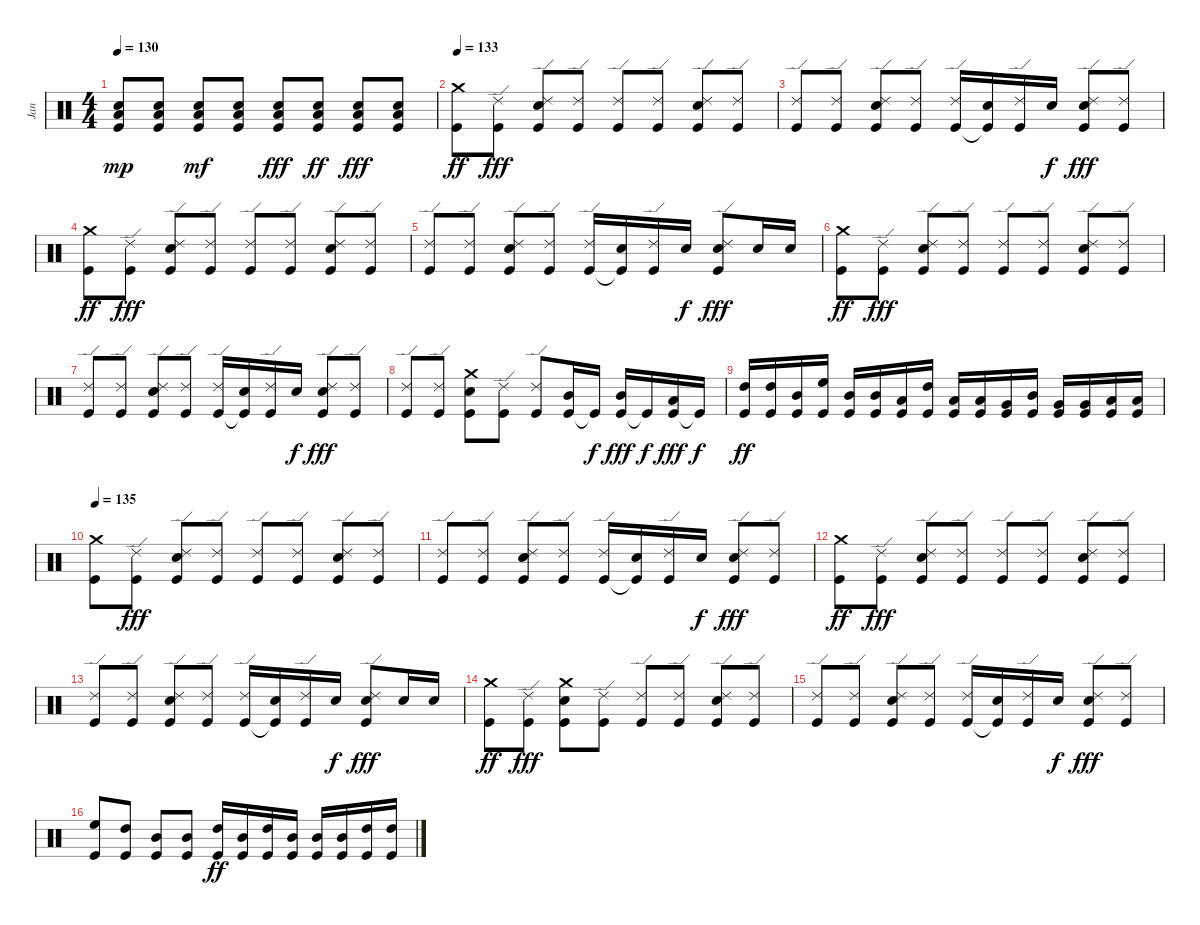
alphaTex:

\track ("Jan" "Jan") {instrument percussion}
\staff {score}
\articulation defaults
\ts (4 4)
\tempo 130
\clef neutral
\ks c
("Kick (hit)" "Snare (hit) 2" "Low Floor Tom (hit)").8{dy mp} ("Kick (hit)" "Snare (hit) 2" "Low Floor Tom (hit)").8 ("Kick (hit)" "Snare (hit) 2" "Low Floor Tom (hit)").8{dy mf} ("Kick (hit)" "Snare (hit) 2" "Low Floor Tom (hit)").8 ("Kick (hit)" "Snare (hit) 2" "Low Floor Tom (hit)").8{dy fff} ("Kick (hit)" "Snare (hit) 2" "Low Floor Tom (hit)").8{dy ff} ("Kick (hit)" "Snare (hit) 2" "Low Floor Tom (hit)").8{dy fff} ("Kick (hit)" "Snare (hit) 2" "Low Floor Tom (hit)").8 |
\tempo 133
("Kick (hit)" "Crash medium (hit)").8{dy ff} ("Kick (hit)" "Ride (edge) 2").8{dy fff} ("Kick (hit)" "Snare (hit) 2" "Ride (edge) 2").8 ("Kick (hit)" "Ride (edge) 2").8 ("Kick (hit)" "Ride (edge) 2").8 ("Kick (hit)" "Ride (edge) 2").8 ("Kick (hit)" "Snare (hit) 2" "Ride (edge) 2").8 ("Kick (hit)" "Ride (edge) 2").8 |
("Kick (hit)" "Ride (edge) 2").8 ("Kick (hit)" "Ride (edge) 2").8 ("Kick (hit)" "Snare (hit) 2" "Ride (edge) 2").8 ("Kick (hit)" "Ride (edge) 2").8 ("Kick (hit)" "Ride (edge) 2").16 ("Kick (hit)"{t} "Snare (hit) 2").16 ("Kick (hit)" "Ride (edge) 2").16 "Snare (hit) 2".16{dy f} ("Kick (hit)" "Snare (hit) 2" "Ride (edge) 2").8{dy fff} ("Kick (hit)" "Ride (edge) 2").8 |
("Kick (hit)" "Crash medium (hit)").8{dy ff} ("Kick (hit)" "Ride (edge) 2").8{dy fff} ("Kick (hit)" "Snare (hit) 2" "Ride (edge) 2").8 ("Kick (hit)" "Ride (edge) 2").8 ("Kick (hit)" "Ride (edge) 2").8 ("Kick (hit)" "Ride (edge) 2").8 ("Kick (hit)" "Snare (hit) 2" "Ride (edge) 2").8 ("Kick (hit)" "Ride (edge) 2").8 |
("Kick (hit)" "Ride (edge) 2").8 ("Kick (hit)" "Ride (edge) 2").8 ("Kick (hit)" "Snare (hit) 2" "Ride (edge) 2").8 ("Kick (hit)" "Ride (edge) 2").8 ("Kick (hit)" "Ride (edge) 2").16 ("Kick (hit)"{t} "Snare (hit) 2").16 ("Kick (hit)" "Ride (edge) 2").16 "Snare (hit) 2".16{dy f} ("Kick (hit)" "Snare (hit) 2" "Ride (edge) 2").8{dy fff} "Snare (hit) 2".16 "Snare (hit) 2".16 |
("Kick (hit)" "Crash medium (hit)").8{dy ff} ("Kick (hit)" "Ride (edge) 2").8{dy fff} ("Kick (hit)" "Snare (hit) 2" "Ride (edge) 2").8 ("Kick (hit)" "Ride (edge) 2").8 ("Kick (hit)" "Ride (edge) 2").8 ("Kick (hit)" "Ride (edge) 2").8 ("Kick (hit)" "Snare (hit) 2" "Ride (edge) 2").8 ("Kick (hit)" "Ride (edge) 2").8 |
("Kick (hit)" "Ride (edge) 2").8 ("Kick (hit)" "Ride (edge) 2").8 ("Kick (hit)" "Snare (hit) 2" "Ride (edge) 2").8 ("Kick (hit)" "Ride (edge) 2").8 ("Kick (hit)" "Ride (edge) 2").16 ("Kick (hit)"{t} "Snare (hit) 2").16 ("Kick (hit)" "Ride (edge) 2").16 "Snare (hit) 2".16{dy f} ("Kick (hit)" "Snare (hit) 2" "Ride (edge) 2").8{dy fff} ("Kick (hit)" "Ride (edge) 2").8 |
("Kick (hit)" "Ride (edge) 2").8 ("Kick (hit)" "Ride (edge) 2").8 ("Kick (hit)" "Snare (hit) 2" "Crash medium (hit)").8 ("Kick (hit)" "Ride (edge) 2").8 ("Kick (hit)" "Ride (edge) 2").8 ("Kick (hit)" "Mid Tom (hit)").16 "Kick (hit)"{t}.16{dy f} ("Kick (hit)" "Mid Tom (hit)").16{dy fff} "Kick (hit)"{t}.16{dy f} ("Kick (hit)" "Low Tom (hit)").16{dy fff} "Kick (hit)"{t}.16{dy f} |
("Kick (hit)" "High Tom (hit)").16{dy ff} ("Kick (hit)" "High Tom (hit)").16 ("Kick (hit)" "Mid Tom (hit)").16 ("Kick (hit)" "High Floor Tom (hit)").16 ("Kick (hit)" "Mid Tom (hit)").16 ("Kick (hit)" "Mid Tom (hit)").16 ("Kick (hit)" "Low Tom (hit)").16 ("Kick (hit)" "High Tom (hit)").16 ("Kick (hit)" "Low Tom (hit)").16 ("Kick (hit)" "Low Tom (hit)").16 ("Kick (hit)" "Very Low Tom (hit)").16 ("Kick (hit)" "Mid Tom (hit)").16 ("Kick (hit)" "Very Low Tom (hit)").16 ("Kick (hit)" "Very Low Tom (hit)").16 ("Kick (hit)" "Low Floor Tom (hit)").16 ("Kick (hit)" "Low Tom (hit)").16 |
\tempo 135
("Kick (hit)" "Crash medium (hit)").8 ("Kick (hit)" "Ride (edge) 2").8{dy fff} ("Kick (hit)" "Snare (hit) 2" "Ride (edge) 2").8 ("Kick (hit)" "Ride (edge) 2").8 ("Kick (hit)" "Ride (edge) 2").8 ("Kick (hit)" "Ride (edge) 2").8 ("Kick (hit)" "Snare (hit) 2" "Ride (edge) 2").8 ("Kick (hit)" "Ride (edge) 2").8 |
("Kick (hit)" "Ride (edge) 2").8 ("Kick (hit)" "Ride (edge) 2").8 ("Kick (hit)" "Snare (hit) 2" "Ride (edge) 2").8 ("Kick (hit)" "Ride (edge) 2").8 ("Kick (hit)" "Ride (edge) 2").16 ("Kick (hit)"{t} "Snare (hit) 2").16 ("Kick (hit)" "Ride (edge) 2").16 "Snare (hit) 2".16{dy f} ("Kick (hit)" "Snare (hit) 2" "Ride (edge) 2").8{dy fff} ("Kick (hit)" "Ride (edge) 2").8 |
("Kick (hit)" "Crash medium (hit)").8{dy ff} ("Kick (hit)" "Ride (edge) 2").8{dy fff} ("Kick (hit)" "Snare (hit) 2" "Ride (edge) 2").8 ("Kick (hit)" "Ride (edge) 2").8 ("Kick (hit)" "Ride (edge) 2").8 ("Kick (hit)" "Ride (edge) 2").8 ("Kick (hit)" "Snare (hit) 2" "Ride (edge) 2").8 ("Kick (hit)" "Ride (edge) 2").8 |
("Kick (hit)" "Ride (edge) 2").8 ("Kick (hit)" "Ride (edge) 2").8 ("Kick (hit)" "Snare (hit) 2" "Ride (edge) 2").8 ("Kick (hit)" "Ride (edge) 2").8 ("Kick (hit)" "Ride (edge) 2").16 ("Kick (hit)"{t} "Snare (hit) 2").16 ("Kick (hit)" "Ride (edge) 2").16 "Snare (hit) 2".16{dy f} ("Kick (hit)" "Snare (hit) 2" "Ride (edge) 2").8{dy fff} "Snare (hit) 2".16 "Snare (hit) 2".16 |
("Kick (hit)" "Crash medium (hit)").8{dy ff} ("Kick (hit)" "Ride (edge) 2").8{dy fff} ("Kick (hit)" "Snare (hit) 2" "Crash medium (hit)").8 ("Kick (hit)" "Ride (edge) 2").8 ("Kick (hit)" "Ride (edge) 2").8 ("Kick (hit)" "Ride (edge) 2").8 ("Kick (hit)" "Snare (hit) 2" "Ride (edge) 2").8 ("Kick (hit)" "Ride (edge) 2").8 |
("Kick (hit)" "Ride (edge) 2").8 ("Kick (hit)" "Ride (edge) 2").8 ("Kick (hit)" "Snare (hit) 2" "Ride (edge) 2").8 ("Kick (hit)" "Ride (edge) 2").8 ("Kick (hit)" "Ride (edge) 2").16 ("Kick (hit)"{t} "Snare (hit) 2").16 ("Kick (hit)" "Ride (edge) 2").16 "Snare (hit) 2".16{dy f} ("Kick (hit)" "Snare (hit) 2" "Ride (edge) 2").8{dy fff} ("Kick (hit)" "Ride (edge) 2").8 |
("Kick (hit)" "High Floor Tom (hit)").8 ("Kick (hit)" "High Tom (hit)").8 ("Kick (hit)" "Mid Tom (hit)").8 ("Kick (hit)" "Mid Tom (hit)").8 ("Kick (hit)" "High Tom (hit)").16{dy ff} ("Kick (hit)" "Mid Tom (hit)").16 ("Kick (hit)" "High Tom (hit)").16 ("Kick (hit)" "Mid Tom (hit)").16 ("Kick (hit)" "Mid Tom (hit)").16 ("Kick (hit)" "Mid Tom (hit)").16 ("Kick (hit)" "High Tom (hit)").16 ("Kick (hit)" "High Tom (hit)").16
